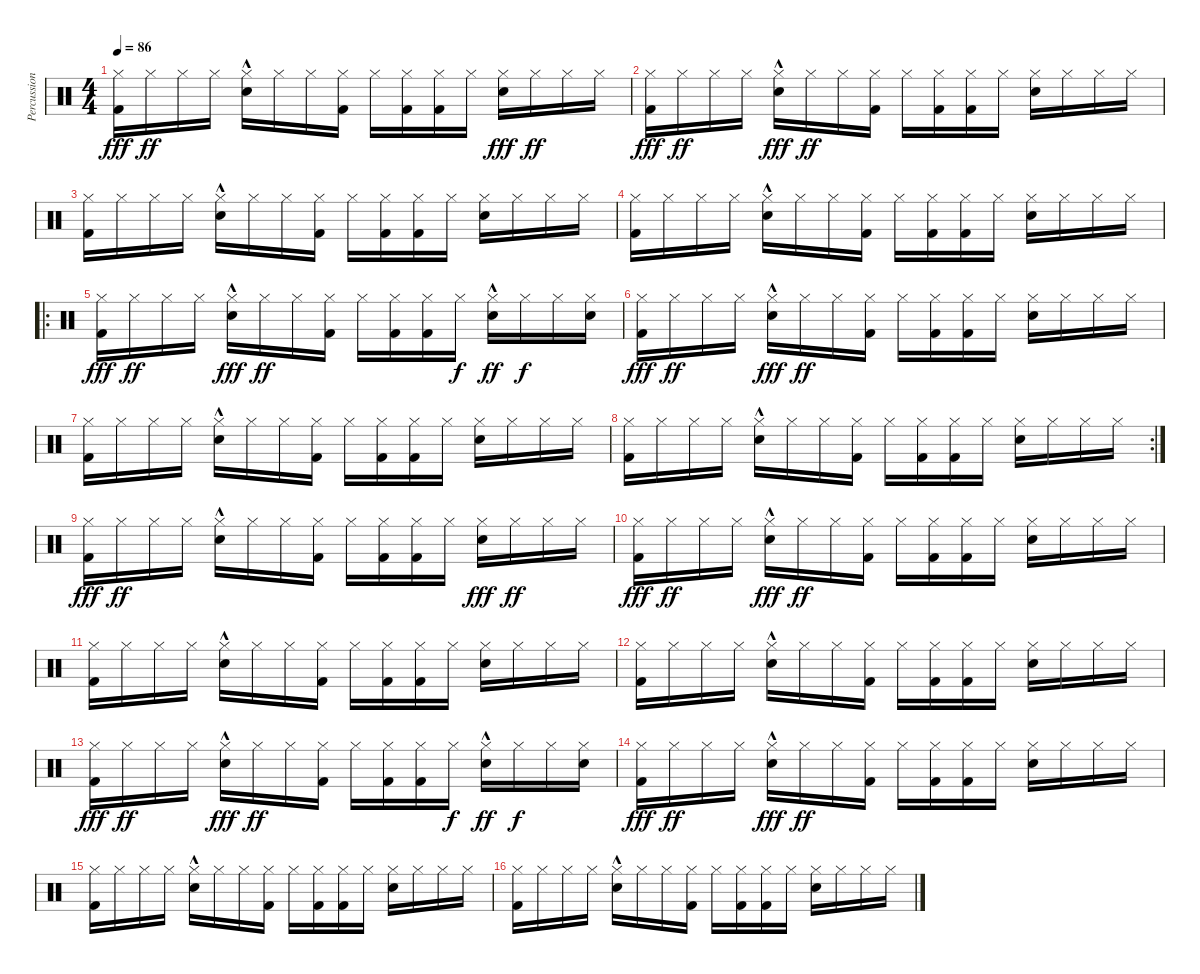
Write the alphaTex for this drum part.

\track ("Percussion" "Percussion") {instrument percussion}
\staff {score}
\articulation defaults
\ts (4 4)
\tempo 86
\clef neutral
\ks c
("Hi-Hat (closed)" "Kick (hit) 2").16{dy fff} "Hi-Hat (closed)".16{dy ff} "Hi-Hat (closed)".16 "Hi-Hat (closed)".16 ("Hi-Hat (closed)" "Snare (hit) 2"{hac}).16 "Hi-Hat (closed)".16 "Hi-Hat (closed)".16 ("Hi-Hat (closed)" "Kick (hit) 2").16 "Hi-Hat (closed)".16 ("Hi-Hat (closed)" "Kick (hit) 2").16 ("Hi-Hat (closed)" "Kick (hit) 2").16 "Hi-Hat (closed)".16 ("Hi-Hat (closed)" "Snare (hit) 2").16{dy fff} "Hi-Hat (closed)".16{dy ff} "Hi-Hat (closed)".16 "Hi-Hat (closed)".16 |
("Hi-Hat (closed)" "Kick (hit) 2").16{dy fff} "Hi-Hat (closed)".16{dy ff} "Hi-Hat (closed)".16 "Hi-Hat (closed)".16 ("Hi-Hat (closed)" "Snare (hit) 2"{hac}).16{dy fff} "Hi-Hat (closed)".16{dy ff} "Hi-Hat (closed)".16 ("Hi-Hat (closed)" "Kick (hit) 2").16 "Hi-Hat (closed)".16 ("Hi-Hat (closed)" "Kick (hit) 2").16 ("Hi-Hat (closed)" "Kick (hit) 2").16 "Hi-Hat (closed)".16 ("Hi-Hat (closed)" "Snare (hit) 2").16 "Hi-Hat (closed)".16 "Hi-Hat (closed)".16 "Hi-Hat (closed)".16 |
("Hi-Hat (closed)" "Kick (hit) 2").16 "Hi-Hat (closed)".16 "Hi-Hat (closed)".16 "Hi-Hat (closed)".16 ("Snare (hit) 2"{hac} "Hi-Hat (closed)").16 "Hi-Hat (closed)".16 "Hi-Hat (closed)".16 ("Hi-Hat (closed)" "Kick (hit) 2").16 "Hi-Hat (closed)".16 ("Kick (hit) 2" "Hi-Hat (closed)").16 ("Kick (hit) 2" "Hi-Hat (closed)").16 "Hi-Hat (closed)".16 ("Hi-Hat (closed)" "Snare (hit) 2").16 "Hi-Hat (closed)".16 "Hi-Hat (closed)".16 "Hi-Hat (closed)".16 |
("Hi-Hat (closed)" "Kick (hit) 2").16 "Hi-Hat (closed)".16 "Hi-Hat (closed)".16 "Hi-Hat (closed)".16 ("Snare (hit) 2"{hac} "Hi-Hat (closed)").16 "Hi-Hat (closed)".16 "Hi-Hat (closed)".16 ("Hi-Hat (closed)" "Kick (hit) 2").16 "Hi-Hat (closed)".16 ("Kick (hit) 2" "Hi-Hat (closed)").16 ("Kick (hit) 2" "Hi-Hat (closed)").16 "Hi-Hat (closed)".16 ("Hi-Hat (closed)" "Snare (hit) 2").16 "Hi-Hat (closed)".16 "Hi-Hat (closed)".16 "Hi-Hat (closed)".16 |
\ro
("Hi-Hat (closed)" "Kick (hit) 2").16{dy fff} "Hi-Hat (closed)".16{dy ff} "Hi-Hat (closed)".16 "Hi-Hat (closed)".16 ("Hi-Hat (closed)" "Snare (hit) 2"{hac}).16{dy fff} "Hi-Hat (closed)".16{dy ff} "Hi-Hat (closed)".16 ("Hi-Hat (closed)" "Kick (hit) 2").16 "Hi-Hat (closed)".16 ("Hi-Hat (closed)" "Kick (hit) 2").16 ("Hi-Hat (closed)" "Kick (hit) 2").16 "Hi-Hat (closed)".16{dy f} ("Hi-Hat (closed)" "Snare (hit) 2"{hac}).16{dy ff} "Hi-Hat (closed)".16{dy f} "Hi-Hat (closed)".16 ("Hi-Hat (closed)" "Snare (hit) 2").16 |
("Hi-Hat (closed)" "Kick (hit) 2").16{dy fff} "Hi-Hat (closed)".16{dy ff} "Hi-Hat (closed)".16 "Hi-Hat (closed)".16 ("Hi-Hat (closed)" "Snare (hit) 2"{hac}).16{dy fff} "Hi-Hat (closed)".16{dy ff} "Hi-Hat (closed)".16 ("Hi-Hat (closed)" "Kick (hit) 2").16 "Hi-Hat (closed)".16 ("Hi-Hat (closed)" "Kick (hit) 2").16 ("Hi-Hat (closed)" "Kick (hit) 2").16 "Hi-Hat (closed)".16 ("Hi-Hat (closed)" "Snare (hit) 2").16 "Hi-Hat (closed)".16 "Hi-Hat (closed)".16 "Hi-Hat (closed)".16 |
("Hi-Hat (closed)" "Kick (hit) 2").16 "Hi-Hat (closed)".16 "Hi-Hat (closed)".16 "Hi-Hat (closed)".16 ("Snare (hit) 2"{hac} "Hi-Hat (closed)").16 "Hi-Hat (closed)".16 "Hi-Hat (closed)".16 ("Hi-Hat (closed)" "Kick (hit) 2").16 "Hi-Hat (closed)".16 ("Kick (hit) 2" "Hi-Hat (closed)").16 ("Kick (hit) 2" "Hi-Hat (closed)").16 "Hi-Hat (closed)".16 ("Hi-Hat (closed)" "Snare (hit) 2").16 "Hi-Hat (closed)".16 "Hi-Hat (closed)".16 "Hi-Hat (closed)".16 |
\rc 2
("Hi-Hat (closed)" "Kick (hit) 2").16 "Hi-Hat (closed)".16 "Hi-Hat (closed)".16 "Hi-Hat (closed)".16 ("Snare (hit) 2"{hac} "Hi-Hat (closed)").16 "Hi-Hat (closed)".16 "Hi-Hat (closed)".16 ("Hi-Hat (closed)" "Kick (hit) 2").16 "Hi-Hat (closed)".16 ("Kick (hit) 2" "Hi-Hat (closed)").16 ("Kick (hit) 2" "Hi-Hat (closed)").16 "Hi-Hat (closed)".16 ("Hi-Hat (closed)" "Snare (hit) 2").16 "Hi-Hat (closed)".16 "Hi-Hat (closed)".16 "Hi-Hat (closed)".16 |
("Hi-Hat (closed)" "Kick (hit) 2").16{dy fff} "Hi-Hat (closed)".16{dy ff} "Hi-Hat (closed)".16 "Hi-Hat (closed)".16 ("Hi-Hat (closed)" "Snare (hit) 2"{hac}).16 "Hi-Hat (closed)".16 "Hi-Hat (closed)".16 ("Hi-Hat (closed)" "Kick (hit) 2").16 "Hi-Hat (closed)".16 ("Hi-Hat (closed)" "Kick (hit) 2").16 ("Hi-Hat (closed)" "Kick (hit) 2").16 "Hi-Hat (closed)".16 ("Hi-Hat (closed)" "Snare (hit) 2").16{dy fff} "Hi-Hat (closed)".16{dy ff} "Hi-Hat (closed)".16 "Hi-Hat (closed)".16 |
("Hi-Hat (closed)" "Kick (hit) 2").16{dy fff} "Hi-Hat (closed)".16{dy ff} "Hi-Hat (closed)".16 "Hi-Hat (closed)".16 ("Hi-Hat (closed)" "Snare (hit) 2"{hac}).16{dy fff} "Hi-Hat (closed)".16{dy ff} "Hi-Hat (closed)".16 ("Hi-Hat (closed)" "Kick (hit) 2").16 "Hi-Hat (closed)".16 ("Hi-Hat (closed)" "Kick (hit) 2").16 ("Hi-Hat (closed)" "Kick (hit) 2").16 "Hi-Hat (closed)".16 ("Hi-Hat (closed)" "Snare (hit) 2").16 "Hi-Hat (closed)".16 "Hi-Hat (closed)".16 "Hi-Hat (closed)".16 |
("Hi-Hat (closed)" "Kick (hit) 2").16 "Hi-Hat (closed)".16 "Hi-Hat (closed)".16 "Hi-Hat (closed)".16 ("Snare (hit) 2"{hac} "Hi-Hat (closed)").16 "Hi-Hat (closed)".16 "Hi-Hat (closed)".16 ("Hi-Hat (closed)" "Kick (hit) 2").16 "Hi-Hat (closed)".16 ("Kick (hit) 2" "Hi-Hat (closed)").16 ("Kick (hit) 2" "Hi-Hat (closed)").16 "Hi-Hat (closed)".16 ("Hi-Hat (closed)" "Snare (hit) 2").16 "Hi-Hat (closed)".16 "Hi-Hat (closed)".16 "Hi-Hat (closed)".16 |
("Hi-Hat (closed)" "Kick (hit) 2").16 "Hi-Hat (closed)".16 "Hi-Hat (closed)".16 "Hi-Hat (closed)".16 ("Snare (hit) 2"{hac} "Hi-Hat (closed)").16 "Hi-Hat (closed)".16 "Hi-Hat (closed)".16 ("Hi-Hat (closed)" "Kick (hit) 2").16 "Hi-Hat (closed)".16 ("Kick (hit) 2" "Hi-Hat (closed)").16 ("Kick (hit) 2" "Hi-Hat (closed)").16 "Hi-Hat (closed)".16 ("Hi-Hat (closed)" "Snare (hit) 2").16 "Hi-Hat (closed)".16 "Hi-Hat (closed)".16 "Hi-Hat (closed)".16 |
("Hi-Hat (closed)" "Kick (hit) 2").16{dy fff} "Hi-Hat (closed)".16{dy ff} "Hi-Hat (closed)".16 "Hi-Hat (closed)".16 ("Hi-Hat (closed)" "Snare (hit) 2"{hac}).16{dy fff} "Hi-Hat (closed)".16{dy ff} "Hi-Hat (closed)".16 ("Hi-Hat (closed)" "Kick (hit) 2").16 "Hi-Hat (closed)".16 ("Hi-Hat (closed)" "Kick (hit) 2").16 ("Hi-Hat (closed)" "Kick (hit) 2").16 "Hi-Hat (closed)".16{dy f} ("Hi-Hat (closed)" "Snare (hit) 2"{hac}).16{dy ff} "Hi-Hat (closed)".16{dy f} "Hi-Hat (closed)".16 ("Hi-Hat (closed)" "Snare (hit) 2").16 |
("Hi-Hat (closed)" "Kick (hit) 2").16{dy fff} "Hi-Hat (closed)".16{dy ff} "Hi-Hat (closed)".16 "Hi-Hat (closed)".16 ("Hi-Hat (closed)" "Snare (hit) 2"{hac}).16{dy fff} "Hi-Hat (closed)".16{dy ff} "Hi-Hat (closed)".16 ("Hi-Hat (closed)" "Kick (hit) 2").16 "Hi-Hat (closed)".16 ("Hi-Hat (closed)" "Kick (hit) 2").16 ("Hi-Hat (closed)" "Kick (hit) 2").16 "Hi-Hat (closed)".16 ("Hi-Hat (closed)" "Snare (hit) 2").16 "Hi-Hat (closed)".16 "Hi-Hat (closed)".16 "Hi-Hat (closed)".16 |
("Hi-Hat (closed)" "Kick (hit) 2").16 "Hi-Hat (closed)".16 "Hi-Hat (closed)".16 "Hi-Hat (closed)".16 ("Snare (hit) 2"{hac} "Hi-Hat (closed)").16 "Hi-Hat (closed)".16 "Hi-Hat (closed)".16 ("Hi-Hat (closed)" "Kick (hit) 2").16 "Hi-Hat (closed)".16 ("Kick (hit) 2" "Hi-Hat (closed)").16 ("Kick (hit) 2" "Hi-Hat (closed)").16 "Hi-Hat (closed)".16 ("Hi-Hat (closed)" "Snare (hit) 2").16 "Hi-Hat (closed)".16 "Hi-Hat (closed)".16 "Hi-Hat (closed)".16 |
("Hi-Hat (closed)" "Kick (hit) 2").16 "Hi-Hat (closed)".16 "Hi-Hat (closed)".16 "Hi-Hat (closed)".16 ("Snare (hit) 2"{hac} "Hi-Hat (closed)").16 "Hi-Hat (closed)".16 "Hi-Hat (closed)".16 ("Hi-Hat (closed)" "Kick (hit) 2").16 "Hi-Hat (closed)".16 ("Kick (hit) 2" "Hi-Hat (closed)").16 ("Kick (hit) 2" "Hi-Hat (closed)").16 "Hi-Hat (closed)".16 ("Hi-Hat (closed)" "Snare (hit) 2").16 "Hi-Hat (closed)".16 "Hi-Hat (closed)".16 "Hi-Hat (closed)".16
